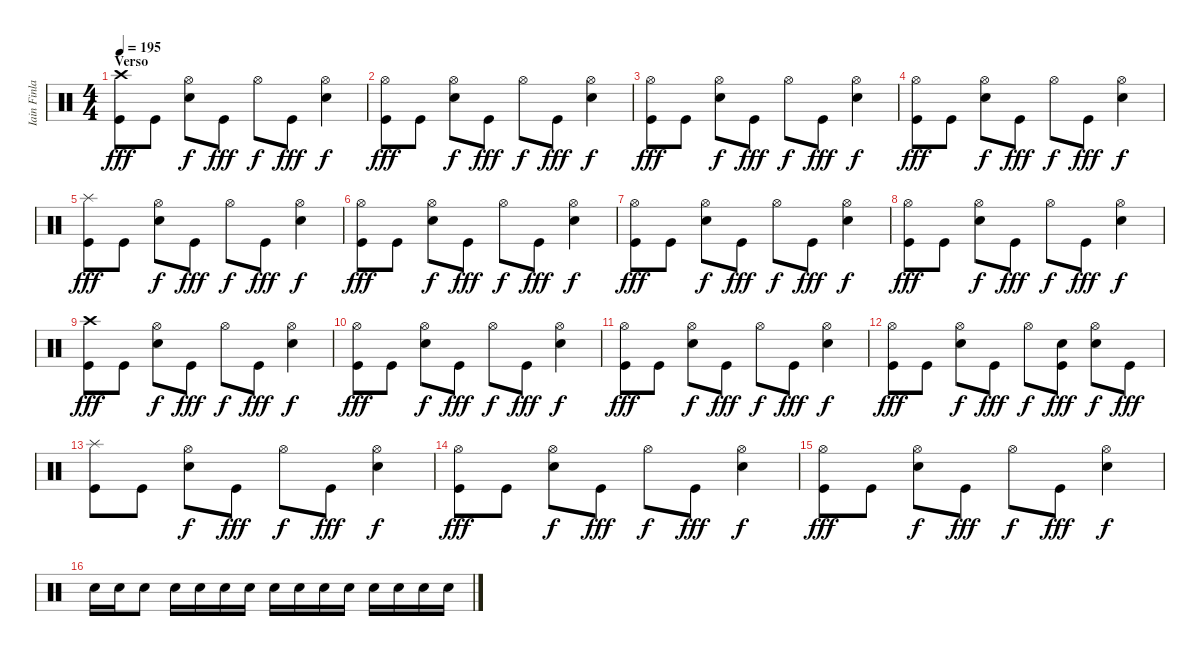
\track ("Iain Finlay (Batería)" "Iain Finla") {instrument percussion}
\staff {score}
\articulation defaults
\ts (4 4)
\section ("" "Verso")
\tempo 195
\clef neutral
\ks c
("Crash high (hit)" "Kick (hit)").8{dy fff} "Kick (hit)".8 ("Hi-Hat (open)" "Electric Snare (hit)").8{dy f} "Kick (hit)".8{dy fff} "Hi-Hat (open)".8{dy f} "Kick (hit)".8{dy fff} ("Hi-Hat (open)" "Electric Snare (hit)").4{dy f} |
("Hi-Hat (open)" "Kick (hit)").8{dy fff} "Kick (hit)".8 ("Hi-Hat (open)" "Electric Snare (hit)").8{dy f} "Kick (hit)".8{dy fff} "Hi-Hat (open)".8{dy f} "Kick (hit)".8{dy fff} ("Hi-Hat (open)" "Electric Snare (hit)").4{dy f} |
("Hi-Hat (open)" "Kick (hit)").8{dy fff} "Kick (hit)".8 ("Hi-Hat (open)" "Electric Snare (hit)").8{dy f} "Kick (hit)".8{dy fff} "Hi-Hat (open)".8{dy f} "Kick (hit)".8{dy fff} ("Hi-Hat (open)" "Electric Snare (hit)").4{dy f} |
("Hi-Hat (open)" "Kick (hit)").8{dy fff} "Kick (hit)".8 ("Hi-Hat (open)" "Electric Snare (hit)").8{dy f} "Kick (hit)".8{dy fff} "Hi-Hat (open)".8{dy f} "Kick (hit)".8{dy fff} ("Hi-Hat (open)" "Electric Snare (hit)").4{dy f} |
("Splash (hit)" "Kick (hit)").8{dy fff} "Kick (hit)".8 ("Hi-Hat (open)" "Electric Snare (hit)").8{dy f} "Kick (hit)".8{dy fff} "Hi-Hat (open)".8{dy f} "Kick (hit)".8{dy fff} ("Hi-Hat (open)" "Electric Snare (hit)").4{dy f} |
("Hi-Hat (open)" "Kick (hit)").8{dy fff} "Kick (hit)".8 ("Hi-Hat (open)" "Electric Snare (hit)").8{dy f} "Kick (hit)".8{dy fff} "Hi-Hat (open)".8{dy f} "Kick (hit)".8{dy fff} ("Hi-Hat (open)" "Electric Snare (hit)").4{dy f} |
("Hi-Hat (open)" "Kick (hit)").8{dy fff} "Kick (hit)".8 ("Hi-Hat (open)" "Electric Snare (hit)").8{dy f} "Kick (hit)".8{dy fff} "Hi-Hat (open)".8{dy f} "Kick (hit)".8{dy fff} ("Hi-Hat (open)" "Electric Snare (hit)").4{dy f} |
("Hi-Hat (open)" "Kick (hit)").8{dy fff} "Kick (hit)".8 ("Hi-Hat (open)" "Electric Snare (hit)").8{dy f} "Kick (hit)".8{dy fff} "Hi-Hat (open)".8{dy f} "Kick (hit)".8{dy fff} ("Hi-Hat (open)" "Electric Snare (hit)").4{dy f} |
("Crash high (hit)" "Kick (hit)").8{dy fff} "Kick (hit)".8 ("Hi-Hat (open)" "Electric Snare (hit)").8{dy f} "Kick (hit)".8{dy fff} "Hi-Hat (open)".8{dy f} "Kick (hit)".8{dy fff} ("Hi-Hat (open)" "Electric Snare (hit)").4{dy f} |
("Hi-Hat (open)" "Kick (hit)").8{dy fff} "Kick (hit)".8 ("Hi-Hat (open)" "Electric Snare (hit)").8{dy f} "Kick (hit)".8{dy fff} "Hi-Hat (open)".8{dy f} "Kick (hit)".8{dy fff} ("Hi-Hat (open)" "Electric Snare (hit)").4{dy f} |
("Hi-Hat (open)" "Kick (hit)").8{dy fff} "Kick (hit)".8 ("Hi-Hat (open)" "Electric Snare (hit)").8{dy f} "Kick (hit)".8{dy fff} "Hi-Hat (open)".8{dy f} "Kick (hit)".8{dy fff} ("Hi-Hat (open)" "Electric Snare (hit)").4{dy f} |
("Hi-Hat (open)" "Kick (hit)").8{dy fff} "Kick (hit)".8 ("Hi-Hat (open)" "Electric Snare (hit)").8{dy f} "Kick (hit)".8{dy fff} "Hi-Hat (open)".8{dy f} ("Electric Snare (hit)" "Kick (hit)").8{dy fff} ("Hi-Hat (open)" "Electric Snare (hit)").8{dy f} "Kick (hit)".8{dy fff} |
("Splash (hit)" "Kick (hit)").8 "Kick (hit)".8 ("Hi-Hat (open)" "Electric Snare (hit)").8{dy f} "Kick (hit)".8{dy fff} "Hi-Hat (open)".8{dy f} "Kick (hit)".8{dy fff} ("Hi-Hat (open)" "Electric Snare (hit)").4{dy f} |
("Hi-Hat (open)" "Kick (hit)").8{dy fff} "Kick (hit)".8 ("Hi-Hat (open)" "Electric Snare (hit)").8{dy f} "Kick (hit)".8{dy fff} "Hi-Hat (open)".8{dy f} "Kick (hit)".8{dy fff} ("Hi-Hat (open)" "Electric Snare (hit)").4{dy f} |
("Hi-Hat (open)" "Kick (hit)").8{dy fff} "Kick (hit)".8 ("Hi-Hat (open)" "Electric Snare (hit)").8{dy f} "Kick (hit)".8{dy fff} "Hi-Hat (open)".8{dy f} "Kick (hit)".8{dy fff} ("Hi-Hat (open)" "Electric Snare (hit)").4{dy f} |
"Electric Snare (hit)".16 "Electric Snare (hit)".16 "Electric Snare (hit)".8 "Electric Snare (hit)".16 "Electric Snare (hit)".16 "Electric Snare (hit)".16 "Electric Snare (hit)".16 "Electric Snare (hit)".16 "Electric Snare (hit)".16 "Electric Snare (hit)".16 "Electric Snare (hit)".16 "Electric Snare (hit)".16 "Electric Snare (hit)".16 "Electric Snare (hit)".16 "Electric Snare (hit)".16
